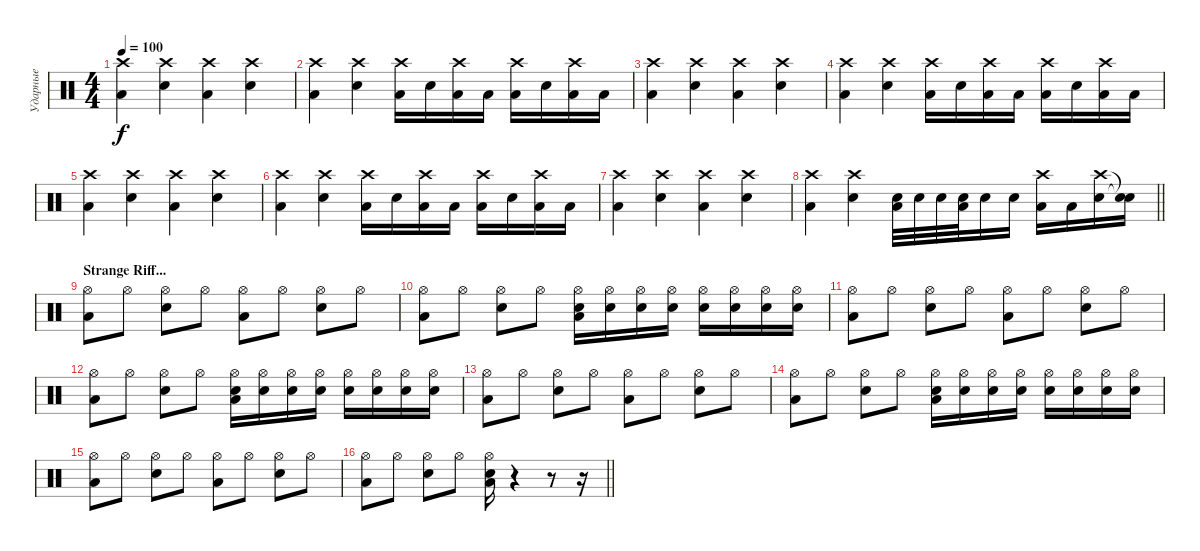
\track ("Ударные" "Ударные") {instrument percussion}
\staff {score}
\articulation defaults
\ts (4 4)
\tempo 100
\clef neutral
\ks c
("Low Floor Tom (hit)" "Crash high (hit)").4{dy f} ("Snare (hit) 2" "Crash high (hit)").4 ("Low Floor Tom (hit)" "Crash high (hit)").4 ("Snare (hit) 2" "Crash high (hit)").4 |
("Low Floor Tom (hit)" "Crash high (hit)").4 ("Snare (hit) 2" "Crash high (hit)").4 ("Low Floor Tom (hit)" "Crash high (hit)").16 "Snare (hit) 2".16 ("Low Floor Tom (hit)" "Crash high (hit)").16 "Low Floor Tom (hit)".16 ("Low Floor Tom (hit)" "Crash high (hit)").16 "Snare (hit) 2".16 ("Low Floor Tom (hit)" "Crash high (hit)").16 "Low Floor Tom (hit)".16 |
("Low Floor Tom (hit)" "Crash high (hit)").4 ("Snare (hit) 2" "Crash high (hit)").4 ("Low Floor Tom (hit)" "Crash high (hit)").4 ("Snare (hit) 2" "Crash high (hit)").4 |
("Low Floor Tom (hit)" "Crash high (hit)").4 ("Snare (hit) 2" "Crash high (hit)").4 ("Low Floor Tom (hit)" "Crash high (hit)").16 "Snare (hit) 2".16 ("Low Floor Tom (hit)" "Crash high (hit)").16 "Low Floor Tom (hit)".16 ("Low Floor Tom (hit)" "Crash high (hit)").16 "Snare (hit) 2".16 ("Low Floor Tom (hit)" "Crash high (hit)").16 "Low Floor Tom (hit)".16 |
("Low Floor Tom (hit)" "Crash high (hit)").4 ("Snare (hit) 2" "Crash high (hit)").4 ("Low Floor Tom (hit)" "Crash high (hit)").4 ("Snare (hit) 2" "Crash high (hit)").4 |
("Low Floor Tom (hit)" "Crash high (hit)").4 ("Snare (hit) 2" "Crash high (hit)").4 ("Low Floor Tom (hit)" "Crash high (hit)").16 "Snare (hit) 2".16 ("Low Floor Tom (hit)" "Crash high (hit)").16 "Low Floor Tom (hit)".16 ("Low Floor Tom (hit)" "Crash high (hit)").16 "Snare (hit) 2".16 ("Low Floor Tom (hit)" "Crash high (hit)").16 "Low Floor Tom (hit)".16 |
("Low Floor Tom (hit)" "Crash high (hit)").4 ("Snare (hit) 2" "Crash high (hit)").4 ("Low Floor Tom (hit)" "Crash high (hit)").4 ("Snare (hit) 2" "Crash high (hit)").4 |
\barLineRight lightlight
("Low Floor Tom (hit)" "Crash high (hit)").4 ("Snare (hit) 2" "Crash high (hit)").4 ("Low Floor Tom (hit)" "Snare (hit) 2").32 "Snare (hit) 2".32 "Snare (hit) 2".32 ("Low Floor Tom (hit)" "Snare (hit) 2").32 "Snare (hit) 2".16 "Snare (hit) 2".16 ("Low Floor Tom (hit)" "Crash high (hit)").16 "Low Floor Tom (hit)".16 ("Snare (hit) 2" "Crash high (hit)").16 ("Snare (hit)"{t} "Snare (hit)"{t}).16 |
\section ("" "Strange Riff...")
("Low Floor Tom (hit)" "Hi-Hat (open)").8 "Hi-Hat (open)".8 ("Snare (hit) 2" "Hi-Hat (open)").8 "Hi-Hat (open)".8 ("Low Floor Tom (hit)" "Hi-Hat (open)").8 "Hi-Hat (open)".8 ("Snare (hit) 2" "Hi-Hat (open)").8 "Hi-Hat (open)".8 |
("Low Floor Tom (hit)" "Hi-Hat (open)").8 "Hi-Hat (open)".8 ("Snare (hit) 2" "Hi-Hat (open)").8 "Hi-Hat (open)".8 ("Low Floor Tom (hit)" "Snare (hit) 2" "Hi-Hat (open)").16 ("Snare (hit) 2" "Hi-Hat (open)").16 ("Snare (hit) 2" "Hi-Hat (open)").16 ("Snare (hit) 2" "Hi-Hat (open)").16 ("Snare (hit) 2" "Hi-Hat (open)").16 ("Snare (hit) 2" "Hi-Hat (open)").16 ("Snare (hit) 2" "Hi-Hat (open)").16 ("Snare (hit) 2" "Hi-Hat (open)").16 |
("Low Floor Tom (hit)" "Hi-Hat (open)").8 "Hi-Hat (open)".8 ("Snare (hit) 2" "Hi-Hat (open)").8 "Hi-Hat (open)".8 ("Low Floor Tom (hit)" "Hi-Hat (open)").8 "Hi-Hat (open)".8 ("Snare (hit) 2" "Hi-Hat (open)").8 "Hi-Hat (open)".8 |
("Low Floor Tom (hit)" "Hi-Hat (open)").8 "Hi-Hat (open)".8 ("Snare (hit) 2" "Hi-Hat (open)").8 "Hi-Hat (open)".8 ("Low Floor Tom (hit)" "Snare (hit) 2" "Hi-Hat (open)").16 ("Snare (hit) 2" "Hi-Hat (open)").16 ("Snare (hit) 2" "Hi-Hat (open)").16 ("Snare (hit) 2" "Hi-Hat (open)").16 ("Snare (hit) 2" "Hi-Hat (open)").16 ("Snare (hit) 2" "Hi-Hat (open)").16 ("Snare (hit) 2" "Hi-Hat (open)").16 ("Snare (hit) 2" "Hi-Hat (open)").16 |
("Low Floor Tom (hit)" "Hi-Hat (open)").8 "Hi-Hat (open)".8 ("Snare (hit) 2" "Hi-Hat (open)").8 "Hi-Hat (open)".8 ("Low Floor Tom (hit)" "Hi-Hat (open)").8 "Hi-Hat (open)".8 ("Snare (hit) 2" "Hi-Hat (open)").8 "Hi-Hat (open)".8 |
("Low Floor Tom (hit)" "Hi-Hat (open)").8 "Hi-Hat (open)".8 ("Snare (hit) 2" "Hi-Hat (open)").8 "Hi-Hat (open)".8 ("Low Floor Tom (hit)" "Snare (hit) 2" "Hi-Hat (open)").16 ("Snare (hit) 2" "Hi-Hat (open)").16 ("Snare (hit) 2" "Hi-Hat (open)").16 ("Snare (hit) 2" "Hi-Hat (open)").16 ("Snare (hit) 2" "Hi-Hat (open)").16 ("Snare (hit) 2" "Hi-Hat (open)").16 ("Snare (hit) 2" "Hi-Hat (open)").16 ("Snare (hit) 2" "Hi-Hat (open)").16 |
("Low Floor Tom (hit)" "Hi-Hat (open)").8 "Hi-Hat (open)".8 ("Snare (hit) 2" "Hi-Hat (open)").8 "Hi-Hat (open)".8 ("Low Floor Tom (hit)" "Hi-Hat (open)").8 "Hi-Hat (open)".8 ("Snare (hit) 2" "Hi-Hat (open)").8 "Hi-Hat (open)".8 |
\barLineRight lightlight
("Low Floor Tom (hit)" "Hi-Hat (open)").8 "Hi-Hat (open)".8 ("Snare (hit) 2" "Hi-Hat (open)").8 "Hi-Hat (open)".8 ("Low Floor Tom (hit)" "Snare (hit) 2" "Hi-Hat (open)").16 r.4 r.8 r.16
